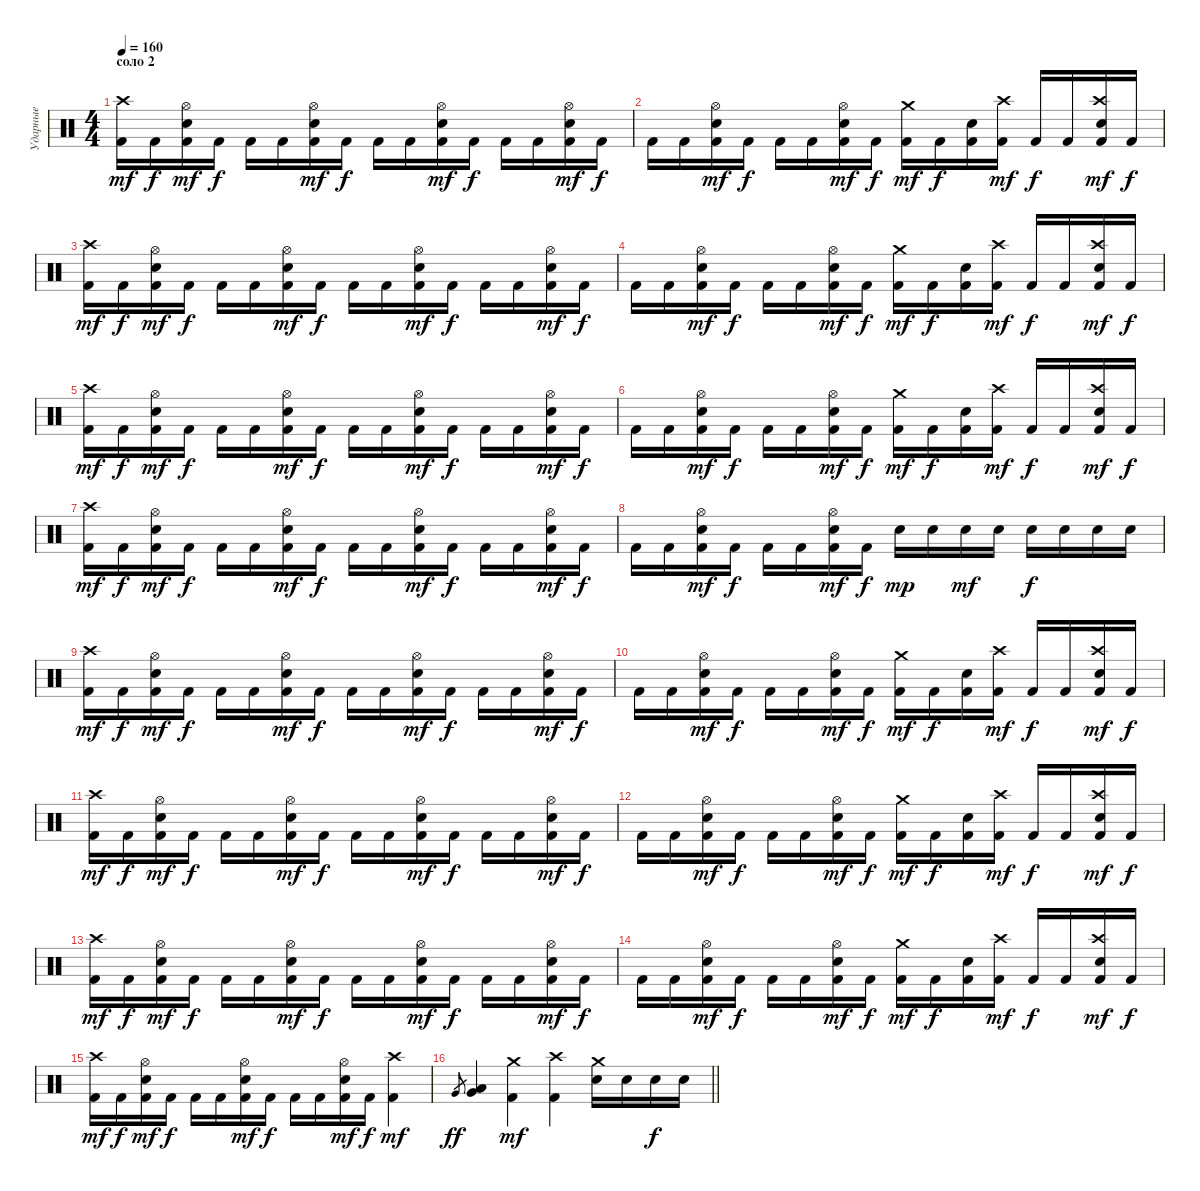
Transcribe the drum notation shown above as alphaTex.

\track ("Ударные" "Ударные") {instrument percussion}
\staff {score}
\articulation defaults
\ts (4 4)
\section ("" "соло 2")
\tempo 160
\clef neutral
\ks c
("Kick (hit) 2" "Crash high (hit)").16{dy mf} "Kick (hit) 2".16{dy f} ("Kick (hit) 2" "Snare (hit) 2" "Hi-Hat (open)").16{dy mf} "Kick (hit) 2".16{dy f} "Kick (hit) 2".16 "Kick (hit) 2".16 ("Kick (hit) 2" "Snare (hit) 2" "Hi-Hat (open)").16{dy mf} "Kick (hit) 2".16{dy f} "Kick (hit) 2".16 "Kick (hit) 2".16 ("Kick (hit) 2" "Snare (hit) 2" "Hi-Hat (open)").16{dy mf} "Kick (hit) 2".16{dy f} "Kick (hit) 2".16 "Kick (hit) 2".16 ("Kick (hit) 2" "Snare (hit) 2" "Hi-Hat (open)").16{dy mf} "Kick (hit) 2".16{dy f} |
"Kick (hit) 2".16 "Kick (hit) 2".16 ("Kick (hit) 2" "Snare (hit) 2" "Hi-Hat (open)").16{dy mf} "Kick (hit) 2".16{dy f} "Kick (hit) 2".16 "Kick (hit) 2".16 ("Kick (hit) 2" "Snare (hit) 2" "Hi-Hat (open)").16{dy mf} "Kick (hit) 2".16{dy f} ("Kick (hit) 2" "Crash medium (hit)").16{dy mf} "Kick (hit) 2".16{dy f} ("Kick (hit) 2" "Snare (hit) 2").16 ("Kick (hit) 2" "Crash high (hit)").16{dy mf} "Kick (hit) 2".16{dy f} "Kick (hit) 2".16 ("Kick (hit) 2" "Snare (hit) 2" "Crash high (hit)").16{dy mf} "Kick (hit) 2".16{dy f} |
("Kick (hit) 2" "Crash high (hit)").16{dy mf} "Kick (hit) 2".16{dy f} ("Kick (hit) 2" "Snare (hit) 2" "Hi-Hat (open)").16{dy mf} "Kick (hit) 2".16{dy f} "Kick (hit) 2".16 "Kick (hit) 2".16 ("Kick (hit) 2" "Snare (hit) 2" "Hi-Hat (open)").16{dy mf} "Kick (hit) 2".16{dy f} "Kick (hit) 2".16 "Kick (hit) 2".16 ("Kick (hit) 2" "Snare (hit) 2" "Hi-Hat (open)").16{dy mf} "Kick (hit) 2".16{dy f} "Kick (hit) 2".16 "Kick (hit) 2".16 ("Kick (hit) 2" "Snare (hit) 2" "Hi-Hat (open)").16{dy mf} "Kick (hit) 2".16{dy f} |
"Kick (hit) 2".16 "Kick (hit) 2".16 ("Kick (hit) 2" "Snare (hit) 2" "Hi-Hat (open)").16{dy mf} "Kick (hit) 2".16{dy f} "Kick (hit) 2".16 "Kick (hit) 2".16 ("Kick (hit) 2" "Snare (hit) 2" "Hi-Hat (open)").16{dy mf} "Kick (hit) 2".16{dy f} ("Kick (hit) 2" "Crash medium (hit)").16{dy mf} "Kick (hit) 2".16{dy f} ("Kick (hit) 2" "Snare (hit) 2").16 ("Kick (hit) 2" "Crash high (hit)").16{dy mf} "Kick (hit) 2".16{dy f} "Kick (hit) 2".16 ("Kick (hit) 2" "Snare (hit) 2" "Crash high (hit)").16{dy mf} "Kick (hit) 2".16{dy f} |
("Kick (hit) 2" "Crash high (hit)").16{dy mf} "Kick (hit) 2".16{dy f} ("Kick (hit) 2" "Snare (hit) 2" "Hi-Hat (open)").16{dy mf} "Kick (hit) 2".16{dy f} "Kick (hit) 2".16 "Kick (hit) 2".16 ("Kick (hit) 2" "Snare (hit) 2" "Hi-Hat (open)").16{dy mf} "Kick (hit) 2".16{dy f} "Kick (hit) 2".16 "Kick (hit) 2".16 ("Kick (hit) 2" "Snare (hit) 2" "Hi-Hat (open)").16{dy mf} "Kick (hit) 2".16{dy f} "Kick (hit) 2".16 "Kick (hit) 2".16 ("Kick (hit) 2" "Snare (hit) 2" "Hi-Hat (open)").16{dy mf} "Kick (hit) 2".16{dy f} |
"Kick (hit) 2".16 "Kick (hit) 2".16 ("Kick (hit) 2" "Snare (hit) 2" "Hi-Hat (open)").16{dy mf} "Kick (hit) 2".16{dy f} "Kick (hit) 2".16 "Kick (hit) 2".16 ("Kick (hit) 2" "Snare (hit) 2" "Hi-Hat (open)").16{dy mf} "Kick (hit) 2".16{dy f} ("Kick (hit) 2" "Crash medium (hit)").16{dy mf} "Kick (hit) 2".16{dy f} ("Kick (hit) 2" "Snare (hit) 2").16 ("Kick (hit) 2" "Crash high (hit)").16{dy mf} "Kick (hit) 2".16{dy f} "Kick (hit) 2".16 ("Kick (hit) 2" "Snare (hit) 2" "Crash high (hit)").16{dy mf} "Kick (hit) 2".16{dy f} |
("Kick (hit) 2" "Crash high (hit)").16{dy mf} "Kick (hit) 2".16{dy f} ("Kick (hit) 2" "Snare (hit) 2" "Hi-Hat (open)").16{dy mf} "Kick (hit) 2".16{dy f} "Kick (hit) 2".16 "Kick (hit) 2".16 ("Kick (hit) 2" "Snare (hit) 2" "Hi-Hat (open)").16{dy mf} "Kick (hit) 2".16{dy f} "Kick (hit) 2".16 "Kick (hit) 2".16 ("Kick (hit) 2" "Snare (hit) 2" "Hi-Hat (open)").16{dy mf} "Kick (hit) 2".16{dy f} "Kick (hit) 2".16 "Kick (hit) 2".16 ("Kick (hit) 2" "Snare (hit) 2" "Hi-Hat (open)").16{dy mf} "Kick (hit) 2".16{dy f} |
"Kick (hit) 2".16 "Kick (hit) 2".16 ("Kick (hit) 2" "Snare (hit) 2" "Hi-Hat (open)").16{dy mf} "Kick (hit) 2".16{dy f} "Kick (hit) 2".16 "Kick (hit) 2".16 ("Kick (hit) 2" "Snare (hit) 2" "Hi-Hat (open)").16{dy mf} "Kick (hit) 2".16{dy f} "Snare (hit) 2".16{dy mp} "Snare (hit) 2".16 "Snare (hit) 2".16{dy mf} "Snare (hit) 2".16 "Snare (hit) 2".16{dy f} "Snare (hit) 2".16 "Snare (hit) 2".16 "Snare (hit) 2".16 |
("Kick (hit) 2" "Crash high (hit)").16{dy mf} "Kick (hit) 2".16{dy f} ("Kick (hit) 2" "Snare (hit) 2" "Hi-Hat (open)").16{dy mf} "Kick (hit) 2".16{dy f} "Kick (hit) 2".16 "Kick (hit) 2".16 ("Kick (hit) 2" "Snare (hit) 2" "Hi-Hat (open)").16{dy mf} "Kick (hit) 2".16{dy f} "Kick (hit) 2".16 "Kick (hit) 2".16 ("Kick (hit) 2" "Snare (hit) 2" "Hi-Hat (open)").16{dy mf} "Kick (hit) 2".16{dy f} "Kick (hit) 2".16 "Kick (hit) 2".16 ("Kick (hit) 2" "Snare (hit) 2" "Hi-Hat (open)").16{dy mf} "Kick (hit) 2".16{dy f} |
"Kick (hit) 2".16 "Kick (hit) 2".16 ("Kick (hit) 2" "Snare (hit) 2" "Hi-Hat (open)").16{dy mf} "Kick (hit) 2".16{dy f} "Kick (hit) 2".16 "Kick (hit) 2".16 ("Kick (hit) 2" "Snare (hit) 2" "Hi-Hat (open)").16{dy mf} "Kick (hit) 2".16{dy f} ("Kick (hit) 2" "Crash medium (hit)").16{dy mf} "Kick (hit) 2".16{dy f} ("Kick (hit) 2" "Snare (hit) 2").16 ("Kick (hit) 2" "Crash high (hit)").16{dy mf} "Kick (hit) 2".16{dy f} "Kick (hit) 2".16 ("Kick (hit) 2" "Snare (hit) 2" "Crash high (hit)").16{dy mf} "Kick (hit) 2".16{dy f} |
("Kick (hit) 2" "Crash high (hit)").16{dy mf} "Kick (hit) 2".16{dy f} ("Kick (hit) 2" "Snare (hit) 2" "Hi-Hat (open)").16{dy mf} "Kick (hit) 2".16{dy f} "Kick (hit) 2".16 "Kick (hit) 2".16 ("Kick (hit) 2" "Snare (hit) 2" "Hi-Hat (open)").16{dy mf} "Kick (hit) 2".16{dy f} "Kick (hit) 2".16 "Kick (hit) 2".16 ("Kick (hit) 2" "Snare (hit) 2" "Hi-Hat (open)").16{dy mf} "Kick (hit) 2".16{dy f} "Kick (hit) 2".16 "Kick (hit) 2".16 ("Kick (hit) 2" "Snare (hit) 2" "Hi-Hat (open)").16{dy mf} "Kick (hit) 2".16{dy f} |
"Kick (hit) 2".16 "Kick (hit) 2".16 ("Kick (hit) 2" "Snare (hit) 2" "Hi-Hat (open)").16{dy mf} "Kick (hit) 2".16{dy f} "Kick (hit) 2".16 "Kick (hit) 2".16 ("Kick (hit) 2" "Snare (hit) 2" "Hi-Hat (open)").16{dy mf} "Kick (hit) 2".16{dy f} ("Kick (hit) 2" "Crash medium (hit)").16{dy mf} "Kick (hit) 2".16{dy f} ("Kick (hit) 2" "Snare (hit) 2").16 ("Kick (hit) 2" "Crash high (hit)").16{dy mf} "Kick (hit) 2".16{dy f} "Kick (hit) 2".16 ("Kick (hit) 2" "Snare (hit) 2" "Crash high (hit)").16{dy mf} "Kick (hit) 2".16{dy f} |
("Kick (hit) 2" "Crash high (hit)").16{dy mf} "Kick (hit) 2".16{dy f} ("Kick (hit) 2" "Snare (hit) 2" "Hi-Hat (open)").16{dy mf} "Kick (hit) 2".16{dy f} "Kick (hit) 2".16 "Kick (hit) 2".16 ("Kick (hit) 2" "Snare (hit) 2" "Hi-Hat (open)").16{dy mf} "Kick (hit) 2".16{dy f} "Kick (hit) 2".16 "Kick (hit) 2".16 ("Kick (hit) 2" "Snare (hit) 2" "Hi-Hat (open)").16{dy mf} "Kick (hit) 2".16{dy f} "Kick (hit) 2".16 "Kick (hit) 2".16 ("Kick (hit) 2" "Snare (hit) 2" "Hi-Hat (open)").16{dy mf} "Kick (hit) 2".16{dy f} |
"Kick (hit) 2".16 "Kick (hit) 2".16 ("Kick (hit) 2" "Snare (hit) 2" "Hi-Hat (open)").16{dy mf} "Kick (hit) 2".16{dy f} "Kick (hit) 2".16 "Kick (hit) 2".16 ("Kick (hit) 2" "Snare (hit) 2" "Hi-Hat (open)").16{dy mf} "Kick (hit) 2".16{dy f} ("Kick (hit) 2" "Crash medium (hit)").16{dy mf} "Kick (hit) 2".16{dy f} ("Kick (hit) 2" "Snare (hit) 2").16 ("Kick (hit) 2" "Crash high (hit)").16{dy mf} "Kick (hit) 2".16{dy f} "Kick (hit) 2".16 ("Kick (hit) 2" "Snare (hit) 2" "Crash high (hit)").16{dy mf} "Kick (hit) 2".16{dy f} |
("Kick (hit) 2" "Crash high (hit)").16{dy mf} "Kick (hit) 2".16{dy f} ("Kick (hit) 2" "Snare (hit) 2" "Hi-Hat (open)").16{dy mf} "Kick (hit) 2".16{dy f} "Kick (hit) 2".16 "Kick (hit) 2".16 ("Kick (hit) 2" "Snare (hit) 2" "Hi-Hat (open)").16{dy mf} "Kick (hit) 2".16{dy f} "Kick (hit) 2".16 "Kick (hit) 2".16 ("Kick (hit) 2" "Snare (hit) 2" "Hi-Hat (open)").16{dy mf} "Kick (hit) 2".16{dy f} ("Kick (hit) 2" "Crash high (hit)").4{dy mf} |
\barLineRight lightlight "Very Low Tom (hit)".8{gr dy ff}
("Very Low Tom (hit)" "Low Tom (hit)").4 ("Kick (hit) 2" "Crash medium (hit)").4{dy mf} ("Kick (hit) 2" "Crash high (hit)").4 ("Snare (hit) 2" "Crash medium (hit)").16 "Snare (hit) 2".16 "Snare (hit) 2".16{dy f} "Snare (hit) 2".16
